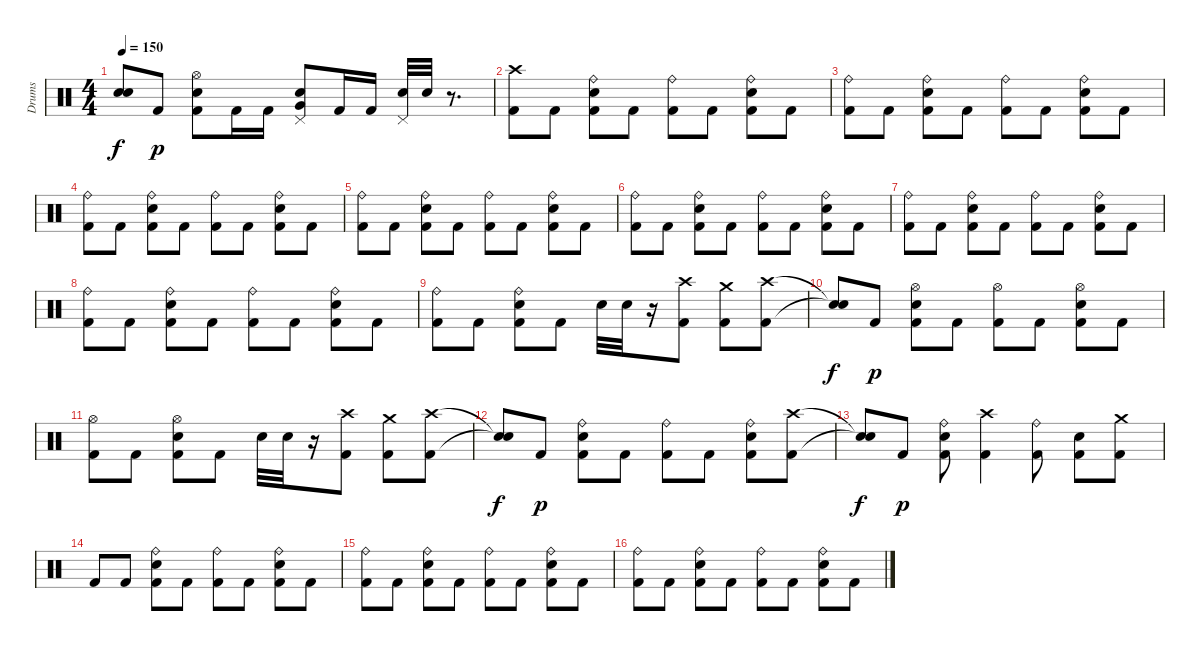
\track ("Drums" "Drums") {instrument percussion}
\staff {score}
\articulation defaults
\ts (4 4)
\tempo 150
\clef neutral
\ks c
("Snare (hit)"{t} "Snare (hit)"{t}).8{dy f} "Kick (hit) 2".8{dy p} ("Kick (hit) 2" "Snare (hit) 2" "Hi-Hat (open)").8 "Kick (hit) 2".16 "Kick (hit) 2".16 ("Snare (hit) 2" "Very Low Tom (hit)" "Pedal Hi-Hat (hit)").8 "Kick (hit) 2".16 "Kick (hit) 2".16 ("Snare (hit) 2" "Pedal Hi-Hat (hit)").32 "Snare (hit) 2".32 r.8{d} |
("Kick (hit) 2" "Crash high (hit)").8 "Kick (hit) 2".8 ("Kick (hit) 2" "Snare (hit) 2" "Ride (bell)").8 "Kick (hit) 2".8 ("Kick (hit) 2" "Ride (bell)").8 "Kick (hit) 2".8 ("Kick (hit) 2" "Snare (hit) 2" "Ride (bell)").8 "Kick (hit) 2".8 |
("Kick (hit) 2" "Ride (bell)").8 "Kick (hit) 2".8 ("Kick (hit) 2" "Snare (hit) 2" "Ride (bell)").8 "Kick (hit) 2".8 ("Kick (hit) 2" "Ride (bell)").8 "Kick (hit) 2".8 ("Kick (hit) 2" "Snare (hit) 2" "Ride (bell)").8 "Kick (hit) 2".8 |
("Kick (hit) 2" "Ride (bell)").8 "Kick (hit) 2".8 ("Kick (hit) 2" "Snare (hit) 2" "Ride (bell)").8 "Kick (hit) 2".8 ("Kick (hit) 2" "Ride (bell)").8 "Kick (hit) 2".8 ("Kick (hit) 2" "Snare (hit) 2" "Ride (bell)").8 "Kick (hit) 2".8 |
("Kick (hit) 2" "Ride (bell)").8 "Kick (hit) 2".8 ("Kick (hit) 2" "Snare (hit) 2" "Ride (bell)").8 "Kick (hit) 2".8 ("Kick (hit) 2" "Ride (bell)").8 "Kick (hit) 2".8 ("Kick (hit) 2" "Snare (hit) 2" "Ride (bell)").8 "Kick (hit) 2".8 |
("Kick (hit) 2" "Ride (bell)").8 "Kick (hit) 2".8 ("Kick (hit) 2" "Snare (hit) 2" "Ride (bell)").8 "Kick (hit) 2".8 ("Kick (hit) 2" "Ride (bell)").8 "Kick (hit) 2".8 ("Kick (hit) 2" "Snare (hit) 2" "Ride (bell)").8 "Kick (hit) 2".8 |
("Kick (hit) 2" "Ride (bell)").8 "Kick (hit) 2".8 ("Kick (hit) 2" "Snare (hit) 2" "Ride (bell)").8 "Kick (hit) 2".8 ("Kick (hit) 2" "Ride (bell)").8 "Kick (hit) 2".8 ("Kick (hit) 2" "Snare (hit) 2" "Ride (bell)").8 "Kick (hit) 2".8 |
("Kick (hit) 2" "Ride (bell)").8 "Kick (hit) 2".8 ("Kick (hit) 2" "Snare (hit) 2" "Ride (bell)").8 "Kick (hit) 2".8 ("Kick (hit) 2" "Ride (bell)").8 "Kick (hit) 2".8 ("Kick (hit) 2" "Snare (hit) 2" "Ride (bell)").8 "Kick (hit) 2".8 |
("Kick (hit) 2" "Ride (bell)").8 "Kick (hit) 2".8 ("Kick (hit) 2" "Snare (hit) 2" "Ride (bell)").8 "Kick (hit) 2".8 "Snare (hit) 2".32 "Snare (hit) 2".32 r.16 ("Kick (hit) 2" "Crash high (hit)").8 ("Kick (hit) 2" "Crash medium (hit)").8 ("Kick (hit) 2" "Crash high (hit)").8 |
("Snare (hit)"{t} "Snare (hit)"{t}).8{dy f} "Kick (hit) 2".8{dy p} ("Kick (hit) 2" "Snare (hit) 2" "Hi-Hat (open)").8 "Kick (hit) 2".8 ("Kick (hit) 2" "Hi-Hat (open)").8 "Kick (hit) 2".8 ("Kick (hit) 2" "Snare (hit) 2" "Hi-Hat (open)").8 "Kick (hit) 2".8 |
("Kick (hit) 2" "Hi-Hat (open)").8 "Kick (hit) 2".8 ("Kick (hit) 2" "Snare (hit) 2" "Hi-Hat (open)").8 "Kick (hit) 2".8 "Snare (hit) 2".32 "Snare (hit) 2".32 r.16 ("Kick (hit) 2" "Crash high (hit)").8 ("Kick (hit) 2" "Crash medium (hit)").8 ("Kick (hit) 2" "Crash high (hit)").8 |
("Snare (hit)"{t} "Snare (hit)"{t}).8{dy f} "Kick (hit) 2".8{dy p} ("Kick (hit) 2" "Snare (hit) 2" "Ride (bell)").8 "Kick (hit) 2".8 ("Kick (hit) 2" "Ride (bell)").8 "Kick (hit) 2".8 ("Kick (hit) 2" "Snare (hit) 2" "Ride (bell)").8 ("Kick (hit) 2" "Crash high (hit)").8 |
("Snare (hit)"{t} "Snare (hit)"{t}).8{dy f} "Kick (hit) 2".8{dy p} ("Kick (hit) 2" "Snare (hit) 2" "Ride (bell)").8 ("Kick (hit) 2" "Crash high (hit)").4 ("Kick (hit) 2" "Ride (bell)").8 ("Kick (hit) 2" "Snare (hit) 2").8 ("Kick (hit) 2" "Crash medium (hit)").8 |
"Kick (hit) 2".8 "Kick (hit) 2".8 ("Kick (hit) 2" "Snare (hit) 2" "Ride (bell)").8 "Kick (hit) 2".8 ("Kick (hit) 2" "Ride (bell)").8 "Kick (hit) 2".8 ("Kick (hit) 2" "Snare (hit) 2" "Ride (bell)").8 "Kick (hit) 2".8 |
("Kick (hit) 2" "Ride (bell)").8 "Kick (hit) 2".8 ("Kick (hit) 2" "Snare (hit) 2" "Ride (bell)").8 "Kick (hit) 2".8 ("Kick (hit) 2" "Ride (bell)").8 "Kick (hit) 2".8 ("Kick (hit) 2" "Snare (hit) 2" "Ride (bell)").8 "Kick (hit) 2".8 |
("Kick (hit) 2" "Ride (bell)").8 "Kick (hit) 2".8 ("Kick (hit) 2" "Snare (hit) 2" "Ride (bell)").8 "Kick (hit) 2".8 ("Kick (hit) 2" "Ride (bell)").8 "Kick (hit) 2".8 ("Kick (hit) 2" "Snare (hit) 2" "Ride (bell)").8 "Kick (hit) 2".8
